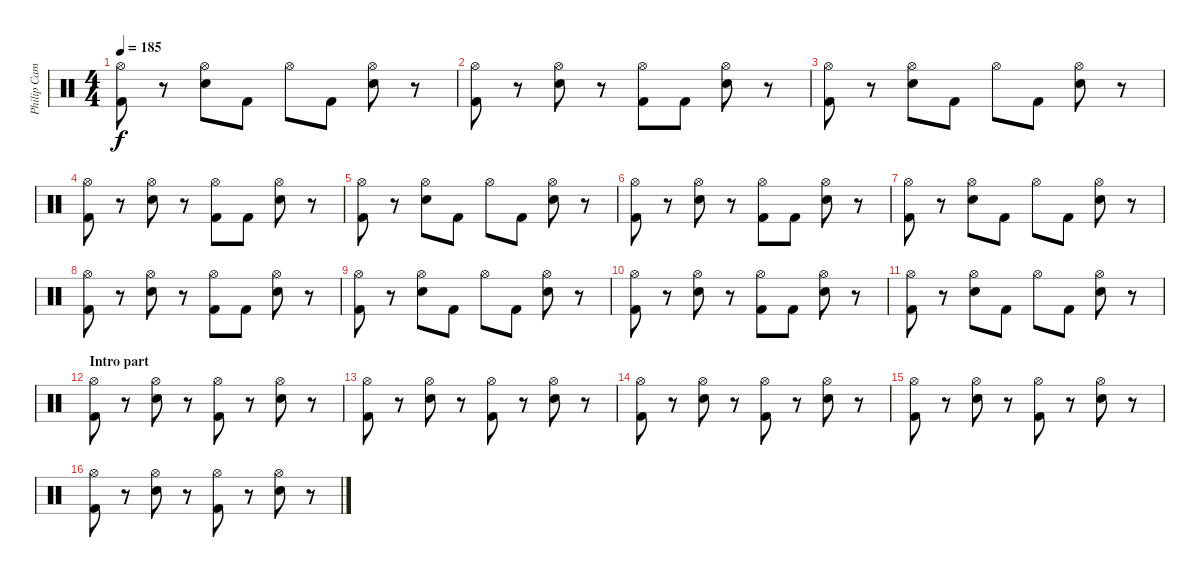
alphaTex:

\track ("Philip Campbell" "Philip Cam") {instrument percussion}
\staff {score}
\articulation defaults
\ts (4 4)
\tempo 185
\clef neutral
\ks c
("Hi-Hat (open)" "Kick (hit) 2").8{dy f} r.8 ("Hi-Hat (open)" "Electric Snare (hit)").8 "Kick (hit) 2".8 "Hi-Hat (open)".8 "Kick (hit) 2".8 ("Hi-Hat (open)" "Electric Snare (hit)").8 r.8 |
("Hi-Hat (open)" "Kick (hit) 2").8 r.8 ("Hi-Hat (open)" "Electric Snare (hit)").8 r.8 ("Hi-Hat (open)" "Kick (hit) 2").8 "Kick (hit) 2".8 ("Hi-Hat (open)" "Electric Snare (hit)").8 r.8 |
("Hi-Hat (open)" "Kick (hit) 2").8 r.8 ("Hi-Hat (open)" "Electric Snare (hit)").8 "Kick (hit) 2".8 "Hi-Hat (open)".8 "Kick (hit) 2".8 ("Hi-Hat (open)" "Electric Snare (hit)").8 r.8 |
("Hi-Hat (open)" "Kick (hit) 2").8 r.8 ("Hi-Hat (open)" "Electric Snare (hit)").8 r.8 ("Hi-Hat (open)" "Kick (hit) 2").8 "Kick (hit) 2".8 ("Hi-Hat (open)" "Electric Snare (hit)").8 r.8 |
("Hi-Hat (open)" "Kick (hit) 2").8 r.8 ("Hi-Hat (open)" "Electric Snare (hit)").8 "Kick (hit) 2".8 "Hi-Hat (open)".8 "Kick (hit) 2".8 ("Hi-Hat (open)" "Electric Snare (hit)").8 r.8 |
("Hi-Hat (open)" "Kick (hit) 2").8 r.8 ("Hi-Hat (open)" "Electric Snare (hit)").8 r.8 ("Hi-Hat (open)" "Kick (hit) 2").8 "Kick (hit) 2".8 ("Hi-Hat (open)" "Electric Snare (hit)").8 r.8 |
("Hi-Hat (open)" "Kick (hit) 2").8 r.8 ("Hi-Hat (open)" "Electric Snare (hit)").8 "Kick (hit) 2".8 "Hi-Hat (open)".8 "Kick (hit) 2".8 ("Hi-Hat (open)" "Electric Snare (hit)").8 r.8 |
("Hi-Hat (open)" "Kick (hit) 2").8 r.8 ("Hi-Hat (open)" "Electric Snare (hit)").8 r.8 ("Hi-Hat (open)" "Kick (hit) 2").8 "Kick (hit) 2".8 ("Hi-Hat (open)" "Electric Snare (hit)").8 r.8 |
("Hi-Hat (open)" "Kick (hit) 2").8 r.8 ("Hi-Hat (open)" "Electric Snare (hit)").8 "Kick (hit) 2".8 "Hi-Hat (open)".8 "Kick (hit) 2".8 ("Hi-Hat (open)" "Electric Snare (hit)").8 r.8 |
("Hi-Hat (open)" "Kick (hit) 2").8 r.8 ("Hi-Hat (open)" "Electric Snare (hit)").8 r.8 ("Hi-Hat (open)" "Kick (hit) 2").8 "Kick (hit) 2".8 ("Hi-Hat (open)" "Electric Snare (hit)").8 r.8 |
("Hi-Hat (open)" "Kick (hit) 2").8 r.8 ("Hi-Hat (open)" "Electric Snare (hit)").8 "Kick (hit) 2".8 "Hi-Hat (open)".8 "Kick (hit) 2".8 ("Hi-Hat (open)" "Electric Snare (hit)").8 r.8 |
\section ("" "Intro part")
("Hi-Hat (open)" "Kick (hit) 2").8 r.8 ("Hi-Hat (open)" "Electric Snare (hit)").8 r.8 ("Hi-Hat (open)" "Kick (hit) 2").8 r.8 ("Hi-Hat (open)" "Electric Snare (hit)").8 r.8 |
("Hi-Hat (open)" "Kick (hit) 2").8 r.8 ("Hi-Hat (open)" "Electric Snare (hit)").8 r.8 ("Hi-Hat (open)" "Kick (hit) 2").8 r.8 ("Hi-Hat (open)" "Electric Snare (hit)").8 r.8 |
("Hi-Hat (open)" "Kick (hit) 2").8 r.8 ("Hi-Hat (open)" "Electric Snare (hit)").8 r.8 ("Hi-Hat (open)" "Kick (hit) 2").8 r.8 ("Hi-Hat (open)" "Electric Snare (hit)").8 r.8 |
("Hi-Hat (open)" "Kick (hit) 2").8 r.8 ("Hi-Hat (open)" "Electric Snare (hit)").8 r.8 ("Hi-Hat (open)" "Kick (hit) 2").8 r.8 ("Hi-Hat (open)" "Electric Snare (hit)").8 r.8 |
("Hi-Hat (open)" "Kick (hit) 2").8 r.8 ("Hi-Hat (open)" "Electric Snare (hit)").8 r.8 ("Hi-Hat (open)" "Kick (hit) 2").8 r.8 ("Hi-Hat (open)" "Electric Snare (hit)").8 r.8
